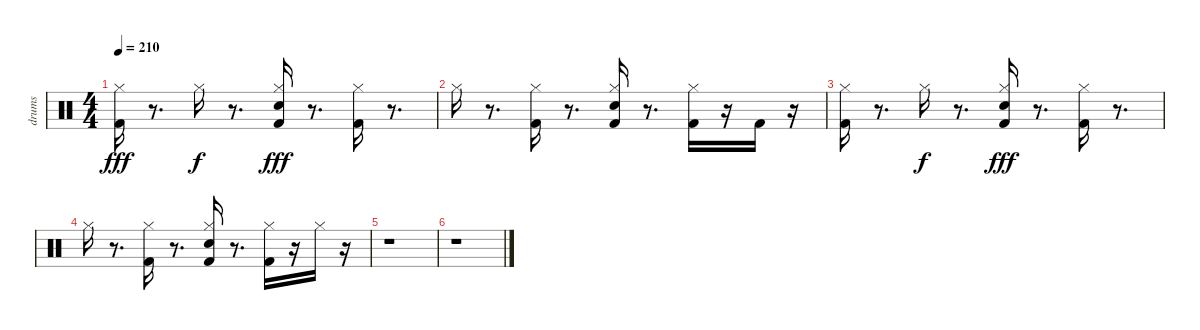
\track ("drums" "drums") {instrument percussion}
\staff {score}
\articulation defaults
\ts (4 4)
\tempo 210
\clef neutral
\ks c
("Kick (hit) 2" "Hi-Hat (closed)").16{dy fff} r.8{d} "Hi-Hat (closed)".16{dy f} r.8{d} ("Hi-Hat (closed)" "Electric Snare (hit)" "Kick (hit) 2").16{dy fff} r.8{d} ("Hi-Hat (closed)" "Kick (hit) 2").16 r.8{d} |
"Hi-Hat (closed)".16 r.8{d} ("Hi-Hat (closed)" "Kick (hit) 2").16 r.8{d} ("Hi-Hat (closed)" "Electric Snare (hit)" "Kick (hit) 2").16 r.8{d} ("Hi-Hat (closed)" "Kick (hit) 2").16 r.16 "Kick (hit) 2".16 r.16 |
("Kick (hit) 2" "Hi-Hat (closed)").16 r.8{d} "Hi-Hat (closed)".16{dy f} r.8{d} ("Hi-Hat (closed)" "Electric Snare (hit)" "Kick (hit) 2").16{dy fff} r.8{d} ("Hi-Hat (closed)" "Kick (hit) 2").16 r.8{d} |
"Hi-Hat (closed)".16 r.8{d} ("Hi-Hat (closed)" "Kick (hit) 2").16 r.8{d} ("Hi-Hat (closed)" "Electric Snare (hit)" "Kick (hit) 2").16 r.8{d} ("Hi-Hat (closed)" "Kick (hit) 2").16 r.16 "Hi-Hat (closed)".16 r.16 |
r.1 |
r.1
